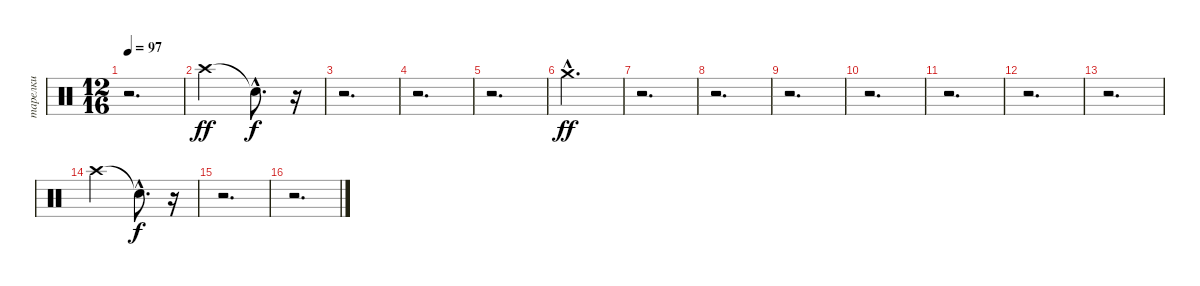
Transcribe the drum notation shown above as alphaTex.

\track ("тарелки" "тарелки") {instrument percussion}
\staff {score}
\articulation defaults
\ts (12 16)
\tempo 97
\clef neutral
\ks c
r.2{d dy ff} |
"Crash high (hit)".2 "Snare (hit)"{hac t}.8{d dy f} r.16 |
r.2{d} |
r.2{d} |
r.2{d} |
"Crash medium (hit)"{hac}.2{d dy ff} |
r.2{d} |
r.2{d} |
r.2{d} |
r.2{d} |
r.2{d} |
r.2{d} |
r.2{d} |
"Crash high (hit)".2 "Snare (hit)"{hac t}.8{d dy f} r.16 |
r.2{d} |
r.2{d}
